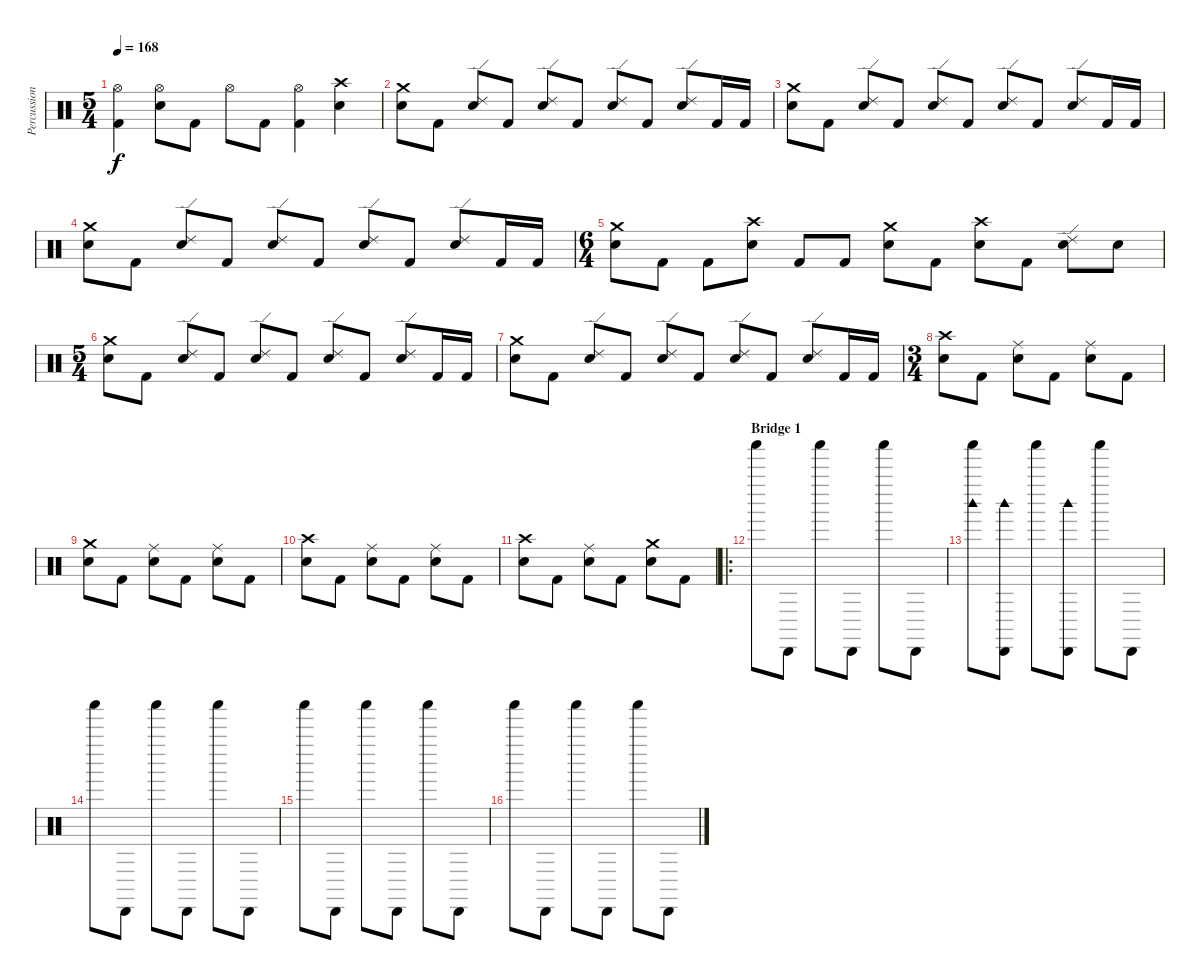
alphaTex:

\track ("Percussion" "Percussion") {instrument percussion}
\staff {score}
\articulation defaults
\ts (5 4)
\tempo 168
\clef neutral
\ks c
("Hi-Hat (open)" "Kick (hit) 2").4{dy f} ("Hi-Hat (open)" "Electric Snare (hit)").8 "Kick (hit) 2".8 "Hi-Hat (open)".8 "Kick (hit) 2".8 ("Hi-Hat (open)" "Kick (hit) 2").4 ("Crash high (hit)" "Electric Snare (hit)").4 |
("Crash medium (hit)" "Electric Snare (hit)").8 "Kick (hit) 2".8 ("Ride (edge) 2" "Electric Snare (hit)").8 "Kick (hit) 2".8 ("Ride (edge) 2" "Electric Snare (hit)").8 "Kick (hit) 2".8 ("Ride (edge) 2" "Electric Snare (hit)").8 "Kick (hit) 2".8 ("Ride (edge) 2" "Electric Snare (hit)").8 "Kick (hit) 2".16 "Kick (hit) 2".16 |
("Crash medium (hit)" "Electric Snare (hit)").8 "Kick (hit) 2".8 ("Ride (edge) 2" "Electric Snare (hit)").8 "Kick (hit) 2".8 ("Ride (edge) 2" "Electric Snare (hit)").8 "Kick (hit) 2".8 ("Ride (edge) 2" "Electric Snare (hit)").8 "Kick (hit) 2".8 ("Ride (edge) 2" "Electric Snare (hit)").8 "Kick (hit) 2".16 "Kick (hit) 2".16 |
("Crash medium (hit)" "Electric Snare (hit)").8 "Kick (hit) 2".8 ("Ride (edge) 2" "Electric Snare (hit)").8 "Kick (hit) 2".8 ("Ride (edge) 2" "Electric Snare (hit)").8 "Kick (hit) 2".8 ("Ride (edge) 2" "Electric Snare (hit)").8 "Kick (hit) 2".8 ("Ride (edge) 2" "Electric Snare (hit)").8 "Kick (hit) 2".16 "Kick (hit) 2".16 |
\ts (6 4)
("Crash medium (hit)" "Electric Snare (hit)").8 "Kick (hit) 2".8 "Kick (hit) 2".8 ("Crash high (hit)" "Electric Snare (hit)").8 "Kick (hit) 2".8 "Kick (hit) 2".8 ("Crash medium (hit)" "Electric Snare (hit)").8 "Kick (hit) 2".8 ("Crash high (hit)" "Electric Snare (hit)").8 "Kick (hit) 2".8 ("Ride (edge) 2" "Electric Snare (hit)").8 "Electric Snare (hit)".8 |
\ts (5 4)
("Crash medium (hit)" "Electric Snare (hit)").8 "Kick (hit) 2".8 ("Ride (edge) 2" "Electric Snare (hit)").8 "Kick (hit) 2".8 ("Ride (edge) 2" "Electric Snare (hit)").8 "Kick (hit) 2".8 ("Ride (edge) 2" "Electric Snare (hit)").8 "Kick (hit) 2".8 ("Ride (edge) 2" "Electric Snare (hit)").8 "Kick (hit) 2".16 "Kick (hit) 2".16 |
("Crash medium (hit)" "Electric Snare (hit)").8 "Kick (hit) 2".8 ("Ride (edge) 2" "Electric Snare (hit)").8 "Kick (hit) 2".8 ("Ride (edge) 2" "Electric Snare (hit)").8 "Kick (hit) 2".8 ("Ride (edge) 2" "Electric Snare (hit)").8 "Kick (hit) 2".8 ("Ride (edge) 2" "Electric Snare (hit)").8 "Kick (hit) 2".16 "Kick (hit) 2".16 |
\ts (3 4)
("Crash high (hit)" "Electric Snare (hit)").8 "Kick (hit) 2".8 ("Ride (middle)" "Electric Snare (hit)").8 "Kick (hit) 2".8 ("Ride (middle)" "Electric Snare (hit)").8 "Kick (hit) 2".8 |
("Crash medium (hit)" "Electric Snare (hit)").8 "Kick (hit) 2".8 ("Ride (middle)" "Electric Snare (hit)").8 "Kick (hit) 2".8 ("Ride (middle)" "Electric Snare (hit)").8 "Kick (hit) 2".8 |
("Crash high (hit)" "Electric Snare (hit)").8 "Kick (hit) 2".8 ("Ride (middle)" "Electric Snare (hit)").8 "Kick (hit) 2".8 ("Ride (middle)" "Electric Snare (hit)").8 "Kick (hit) 2".8 |
("Crash high (hit)" "Electric Snare (hit)").8 "Kick (hit) 2".8 ("Ride (middle)" "Electric Snare (hit)").8 "Kick (hit) 2".8 ("Crash medium (hit)" "Electric Snare (hit)").8 "Kick (hit) 2".8 |
\ro
\section ("" "Bridge 1")
"Shaker (hit)".8 "Cabasa (hit)".8 "Shaker (hit)".8 "Cabasa (hit)".8 "Shaker (hit)".8 "Cabasa (hit)".8 |
("Shaker (hit)" "Woodblock high (hit)").8 ("Cabasa (hit)" "Woodblock high (hit)").8 "Shaker (hit)".8 ("Cabasa (hit)" "Woodblock high (hit)").8 "Shaker (hit)".8 "Cabasa (hit)".8 |
"Shaker (hit)".8 "Cabasa (hit)".8 "Shaker (hit)".8 "Cabasa (hit)".8 "Shaker (hit)".8 "Cabasa (hit)".8 |
"Shaker (hit)".8 "Cabasa (hit)".8 "Shaker (hit)".8 "Cabasa (hit)".8 "Shaker (hit)".8 "Cabasa (hit)".8 |
"Shaker (hit)".8 "Cabasa (hit)".8 "Shaker (hit)".8 "Cabasa (hit)".8 "Shaker (hit)".8 "Cabasa (hit)".8
